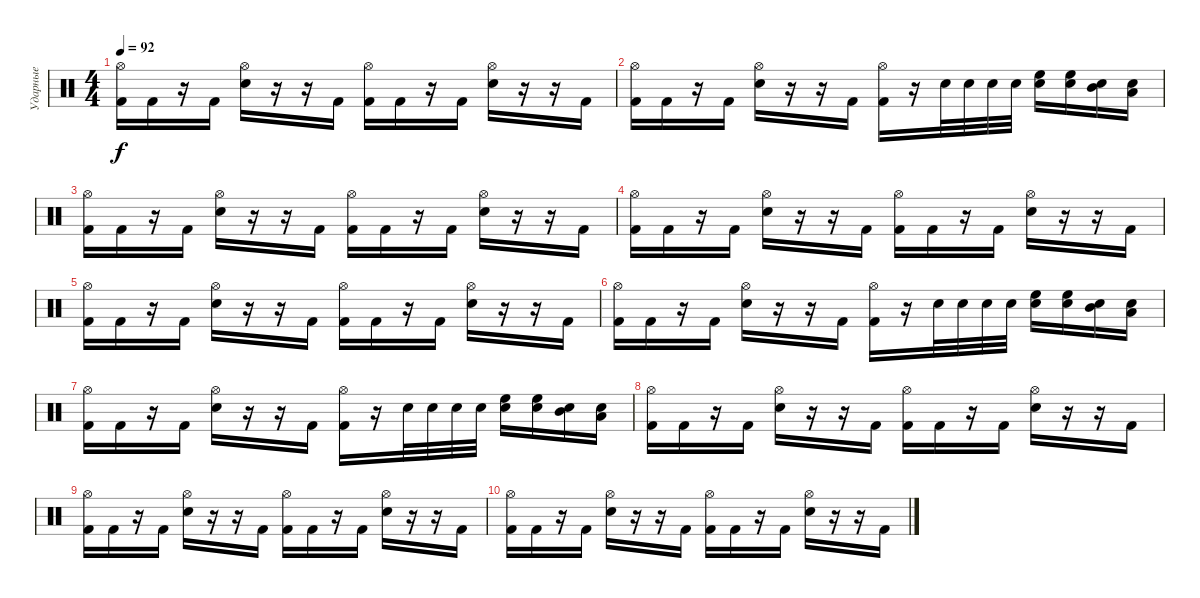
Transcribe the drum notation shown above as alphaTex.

\track ("Ударные" "Ударные") {instrument percussion}
\staff {score}
\articulation defaults
\ts (4 4)
\tempo 92
\clef neutral
\ks c
("Hi-Hat (open)" "Kick (hit) 2").16{dy f} "Kick (hit) 2".16 r.16 "Kick (hit) 2".16 ("Hi-Hat (open)" "Snare (hit) 2").16 r.16 r.16 "Kick (hit) 2".16 ("Hi-Hat (open)" "Kick (hit) 2").16 "Kick (hit) 2".16 r.16 "Kick (hit) 2".16 ("Hi-Hat (open)" "Snare (hit) 2").16 r.16 r.16 "Kick (hit) 2".16 |
("Hi-Hat (open)" "Kick (hit) 2").16 "Kick (hit) 2".16 r.16 "Kick (hit) 2".16 ("Hi-Hat (open)" "Snare (hit) 2").16 r.16 r.16 "Kick (hit) 2".16 ("Hi-Hat (open)" "Kick (hit) 2").16 r.16 "Snare (hit) 2".32 "Snare (hit) 2".32 "Snare (hit) 2".32 "Snare (hit) 2".32 ("High Floor Tom (hit)" "Snare (hit) 2").16 ("High Floor Tom (hit)" "Snare (hit) 2").16 ("Mid Tom (hit)" "Snare (hit) 2").16 ("Low Tom (hit)" "Snare (hit) 2").16 |
("Hi-Hat (open)" "Kick (hit) 2").16 "Kick (hit) 2".16 r.16 "Kick (hit) 2".16 ("Hi-Hat (open)" "Snare (hit) 2").16 r.16 r.16 "Kick (hit) 2".16 ("Hi-Hat (open)" "Kick (hit) 2").16 "Kick (hit) 2".16 r.16 "Kick (hit) 2".16 ("Hi-Hat (open)" "Snare (hit) 2").16 r.16 r.16 "Kick (hit) 2".16 |
("Hi-Hat (open)" "Kick (hit) 2").16 "Kick (hit) 2".16 r.16 "Kick (hit) 2".16 ("Hi-Hat (open)" "Snare (hit) 2").16 r.16 r.16 "Kick (hit) 2".16 ("Hi-Hat (open)" "Kick (hit) 2").16 "Kick (hit) 2".16 r.16 "Kick (hit) 2".16 ("Hi-Hat (open)" "Snare (hit) 2").16 r.16 r.16 "Kick (hit) 2".16 |
("Hi-Hat (open)" "Kick (hit) 2").16 "Kick (hit) 2".16 r.16 "Kick (hit) 2".16 ("Hi-Hat (open)" "Snare (hit) 2").16 r.16 r.16 "Kick (hit) 2".16 ("Hi-Hat (open)" "Kick (hit) 2").16 "Kick (hit) 2".16 r.16 "Kick (hit) 2".16 ("Hi-Hat (open)" "Snare (hit) 2").16 r.16 r.16 "Kick (hit) 2".16 |
("Hi-Hat (open)" "Kick (hit) 2").16 "Kick (hit) 2".16 r.16 "Kick (hit) 2".16 ("Hi-Hat (open)" "Snare (hit) 2").16 r.16 r.16 "Kick (hit) 2".16 ("Hi-Hat (open)" "Kick (hit) 2").16 r.16 "Snare (hit) 2".32 "Snare (hit) 2".32 "Snare (hit) 2".32 "Snare (hit) 2".32 ("High Floor Tom (hit)" "Snare (hit) 2").16 ("High Floor Tom (hit)" "Snare (hit) 2").16 ("Mid Tom (hit)" "Snare (hit) 2").16 ("Low Tom (hit)" "Snare (hit) 2").16 |
("Hi-Hat (open)" "Kick (hit) 2").16 "Kick (hit) 2".16 r.16 "Kick (hit) 2".16 ("Hi-Hat (open)" "Snare (hit) 2").16 r.16 r.16 "Kick (hit) 2".16 ("Hi-Hat (open)" "Kick (hit) 2").16 r.16 "Snare (hit) 2".32 "Snare (hit) 2".32 "Snare (hit) 2".32 "Snare (hit) 2".32 ("High Floor Tom (hit)" "Snare (hit) 2").16 ("High Floor Tom (hit)" "Snare (hit) 2").16 ("Mid Tom (hit)" "Snare (hit) 2").16 ("Low Tom (hit)" "Snare (hit) 2").16 |
("Hi-Hat (open)" "Kick (hit) 2").16 "Kick (hit) 2".16 r.16 "Kick (hit) 2".16 ("Hi-Hat (open)" "Snare (hit) 2").16 r.16 r.16 "Kick (hit) 2".16 ("Hi-Hat (open)" "Kick (hit) 2").16 "Kick (hit) 2".16 r.16 "Kick (hit) 2".16 ("Hi-Hat (open)" "Snare (hit) 2").16 r.16 r.16 "Kick (hit) 2".16 |
("Hi-Hat (open)" "Kick (hit) 2").16 "Kick (hit) 2".16 r.16 "Kick (hit) 2".16 ("Hi-Hat (open)" "Snare (hit) 2").16 r.16 r.16 "Kick (hit) 2".16 ("Hi-Hat (open)" "Kick (hit) 2").16 "Kick (hit) 2".16 r.16 "Kick (hit) 2".16 ("Hi-Hat (open)" "Snare (hit) 2").16 r.16 r.16 "Kick (hit) 2".16 |
("Hi-Hat (open)" "Kick (hit) 2").16 "Kick (hit) 2".16 r.16 "Kick (hit) 2".16 ("Hi-Hat (open)" "Snare (hit) 2").16 r.16 r.16 "Kick (hit) 2".16 ("Hi-Hat (open)" "Kick (hit) 2").16 "Kick (hit) 2".16 r.16 "Kick (hit) 2".16 ("Hi-Hat (open)" "Snare (hit) 2").16 r.16 r.16 "Kick (hit) 2".16
